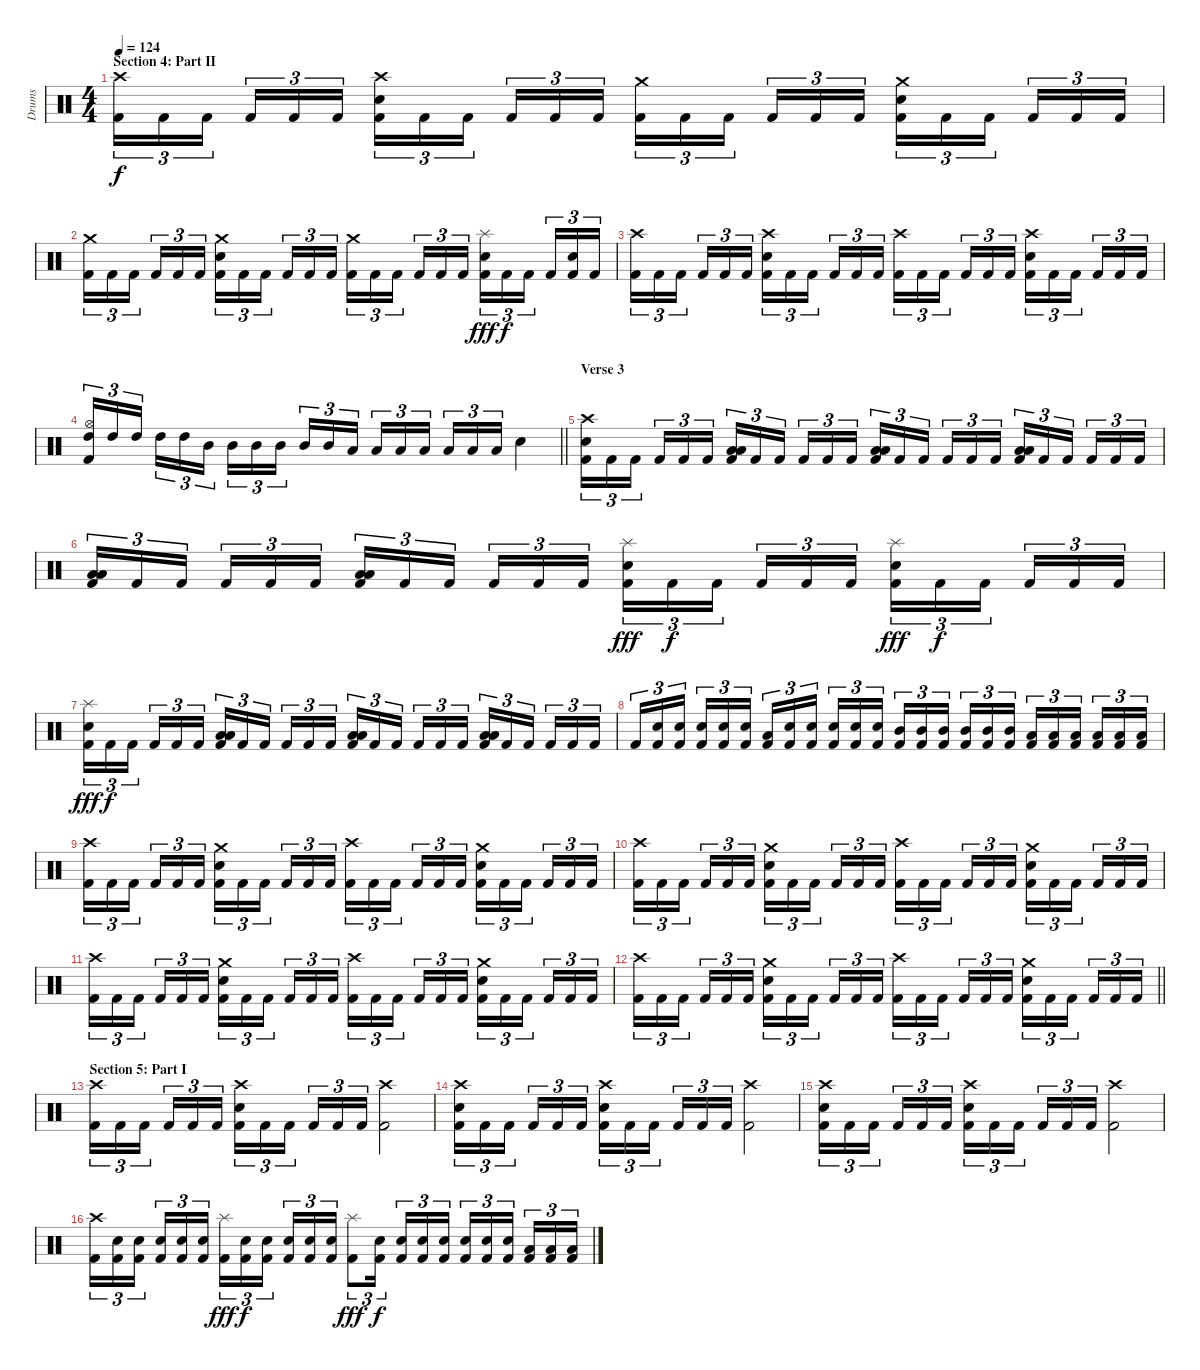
\track ("Drums" "Drums") {instrument percussion}
\staff {score}
\articulation defaults
\ts (4 4)
\section ("" "Section 4: Part II")
\tempo 124
\clef neutral
\ks c
("Crash high (hit)" "Kick (hit) 2").16{tu (3 2) dy f} "Kick (hit) 2".16{tu (3 2)} "Kick (hit) 2".16{tu (3 2) beam splitsecondary} "Kick (hit) 2".16{tu (3 2)} "Kick (hit) 2".16{tu (3 2)} "Kick (hit) 2".16{tu (3 2)} ("Crash high (hit)" "Electric Snare (hit)" "Kick (hit) 2").16{tu (3 2)} "Kick (hit) 2".16{tu (3 2)} "Kick (hit) 2".16{tu (3 2) beam splitsecondary} "Kick (hit) 2".16{tu (3 2)} "Kick (hit) 2".16{tu (3 2)} "Kick (hit) 2".16{tu (3 2)} ("Crash medium (hit)" "Kick (hit) 2").16{tu (3 2)} "Kick (hit) 2".16{tu (3 2)} "Kick (hit) 2".16{tu (3 2) beam splitsecondary} "Kick (hit) 2".16{tu (3 2)} "Kick (hit) 2".16{tu (3 2)} "Kick (hit) 2".16{tu (3 2)} ("Crash medium (hit)" "Electric Snare (hit)" "Kick (hit) 2").16{tu (3 2)} "Kick (hit) 2".16{tu (3 2)} "Kick (hit) 2".16{tu (3 2) beam splitsecondary} "Kick (hit) 2".16{tu (3 2)} "Kick (hit) 2".16{tu (3 2)} "Kick (hit) 2".16{tu (3 2)} |
("Crash medium (hit)" "Kick (hit) 2").16{tu (3 2)} "Kick (hit) 2".16{tu (3 2)} "Kick (hit) 2".16{tu (3 2) beam splitsecondary} "Kick (hit) 2".16{tu (3 2)} "Kick (hit) 2".16{tu (3 2)} "Kick (hit) 2".16{tu (3 2)} ("Crash medium (hit)" "Electric Snare (hit)" "Kick (hit) 2").16{tu (3 2)} "Kick (hit) 2".16{tu (3 2)} "Kick (hit) 2".16{tu (3 2) beam splitsecondary} "Kick (hit) 2".16{tu (3 2)} "Kick (hit) 2".16{tu (3 2)} "Kick (hit) 2".16{tu (3 2)} ("Crash medium (hit)" "Kick (hit) 2").16{tu (3 2)} "Kick (hit) 2".16{tu (3 2)} "Kick (hit) 2".16{tu (3 2) beam splitsecondary} "Kick (hit) 2".16{tu (3 2)} "Kick (hit) 2".16{tu (3 2)} "Kick (hit) 2".16{tu (3 2)} ("Splash (hit)" "Electric Snare (hit)" "Kick (hit) 2").16{tu (3 2) dy fff} "Kick (hit) 2".16{tu (3 2) dy f} "Kick (hit) 2".16{tu (3 2) beam splitsecondary} "Kick (hit) 2".16{tu (3 2)} ("Electric Snare (hit)" "Kick (hit) 2").16{tu (3 2)} "Kick (hit) 2".16{tu (3 2)} |
("Crash high (hit)" "Kick (hit) 2").16{tu (3 2)} "Kick (hit) 2".16{tu (3 2)} "Kick (hit) 2".16{tu (3 2) beam splitsecondary} "Kick (hit) 2".16{tu (3 2)} "Kick (hit) 2".16{tu (3 2)} "Kick (hit) 2".16{tu (3 2)} ("Crash high (hit)" "Electric Snare (hit)" "Kick (hit) 2").16{tu (3 2)} "Kick (hit) 2".16{tu (3 2)} "Kick (hit) 2".16{tu (3 2) beam splitsecondary} "Kick (hit) 2".16{tu (3 2)} "Kick (hit) 2".16{tu (3 2)} "Kick (hit) 2".16{tu (3 2)} ("Crash high (hit)" "Kick (hit) 2").16{tu (3 2)} "Kick (hit) 2".16{tu (3 2)} "Kick (hit) 2".16{tu (3 2) beam splitsecondary} "Kick (hit) 2".16{tu (3 2)} "Kick (hit) 2".16{tu (3 2)} "Kick (hit) 2".16{tu (3 2)} ("Crash high (hit)" "Electric Snare (hit)" "Kick (hit) 2").16{tu (3 2)} "Kick (hit) 2".16{tu (3 2)} "Kick (hit) 2".16{tu (3 2) beam splitsecondary} "Kick (hit) 2".16{tu (3 2)} "Kick (hit) 2".16{tu (3 2)} "Kick (hit) 2".16{tu (3 2)} |
\barLineRight lightlight
("Hi-Hat (open)" "High Tom (hit)" "Kick (hit) 2").16{tu (3 2)} "High Tom (hit)".16{tu (3 2)} "High Tom (hit)".16{tu (3 2) beam splitsecondary} "High Tom (hit)".16{tu (3 2)} "High Tom (hit)".16{tu (3 2)} "Mid Tom (hit)".16{tu (3 2)} "Mid Tom (hit)".16{tu (3 2)} "Mid Tom (hit)".16{tu (3 2)} "Mid Tom (hit)".16{tu (3 2) beam splitsecondary} "Mid Tom (hit)".16{tu (3 2)} "Mid Tom (hit)".16{tu (3 2)} "Low Tom (hit)".16{tu (3 2)} "Low Tom (hit)".16{tu (3 2)} "Low Tom (hit)".16{tu (3 2)} "Low Tom (hit)".16{tu (3 2) beam splitsecondary} "Low Tom (hit)".16{tu (3 2)} "Low Tom (hit)".16{tu (3 2)} "Low Tom (hit)".16{tu (3 2)} "Electric Snare (hit)".4 |
\section ("" "Verse 3")
("Crash high (hit)" "Electric Snare (hit)" "Kick (hit) 2").16{tu (3 2)} "Kick (hit) 2".16{tu (3 2)} "Kick (hit) 2".16{tu (3 2) beam splitsecondary} "Kick (hit) 2".16{tu (3 2)} "Kick (hit) 2".16{tu (3 2)} "Kick (hit) 2".16{tu (3 2)} ("Low Tom (hit)" "Low Tom (hit)" "Kick (hit) 2").16{tu (3 2) bd 30} "Kick (hit) 2".16{tu (3 2)} "Kick (hit) 2".16{tu (3 2) beam splitsecondary} "Kick (hit) 2".16{tu (3 2)} "Kick (hit) 2".16{tu (3 2)} "Kick (hit) 2".16{tu (3 2)} ("Low Tom (hit)" "Low Tom (hit)" "Kick (hit) 2").16{tu (3 2) bd 30} "Kick (hit) 2".16{tu (3 2)} "Kick (hit) 2".16{tu (3 2) beam splitsecondary} "Kick (hit) 2".16{tu (3 2)} "Kick (hit) 2".16{tu (3 2)} "Kick (hit) 2".16{tu (3 2)} ("Low Tom (hit)" "Low Tom (hit)" "Kick (hit) 2").16{tu (3 2) bd 30} "Kick (hit) 2".16{tu (3 2)} "Kick (hit) 2".16{tu (3 2) beam splitsecondary} "Kick (hit) 2".16{tu (3 2)} "Kick (hit) 2".16{tu (3 2)} "Kick (hit) 2".16{tu (3 2)} |
("Low Tom (hit)" "Low Tom (hit)" "Kick (hit) 2").16{tu (3 2) bd 30} "Kick (hit) 2".16{tu (3 2)} "Kick (hit) 2".16{tu (3 2) beam splitsecondary} "Kick (hit) 2".16{tu (3 2)} "Kick (hit) 2".16{tu (3 2)} "Kick (hit) 2".16{tu (3 2)} ("Low Tom (hit)" "Low Tom (hit)" "Kick (hit) 2").16{tu (3 2) bd 30} "Kick (hit) 2".16{tu (3 2)} "Kick (hit) 2".16{tu (3 2) beam splitsecondary} "Kick (hit) 2".16{tu (3 2)} "Kick (hit) 2".16{tu (3 2)} "Kick (hit) 2".16{tu (3 2)} ("Splash (hit)" "Electric Snare (hit)" "Kick (hit) 2").16{tu (3 2) dy fff} "Kick (hit) 2".16{tu (3 2) dy f} "Kick (hit) 2".16{tu (3 2) beam splitsecondary} "Kick (hit) 2".16{tu (3 2)} "Kick (hit) 2".16{tu (3 2)} "Kick (hit) 2".16{tu (3 2)} ("Splash (hit)" "Electric Snare (hit)" "Kick (hit) 2").16{tu (3 2) dy fff} "Kick (hit) 2".16{tu (3 2) dy f} "Kick (hit) 2".16{tu (3 2) beam splitsecondary} "Kick (hit) 2".16{tu (3 2)} "Kick (hit) 2".16{tu (3 2)} "Kick (hit) 2".16{tu (3 2)} |
("Splash (hit)" "Electric Snare (hit)" "Kick (hit) 2").16{tu (3 2) dy fff} "Kick (hit) 2".16{tu (3 2) dy f} "Kick (hit) 2".16{tu (3 2) beam splitsecondary} "Kick (hit) 2".16{tu (3 2)} "Kick (hit) 2".16{tu (3 2)} "Kick (hit) 2".16{tu (3 2)} ("Low Tom (hit)" "Low Tom (hit)" "Kick (hit) 2").16{tu (3 2) bd 30} "Kick (hit) 2".16{tu (3 2)} "Kick (hit) 2".16{tu (3 2) beam splitsecondary} "Kick (hit) 2".16{tu (3 2)} "Kick (hit) 2".16{tu (3 2)} "Kick (hit) 2".16{tu (3 2)} ("Low Tom (hit)" "Low Tom (hit)" "Kick (hit) 2").16{tu (3 2) bd 30} "Kick (hit) 2".16{tu (3 2)} "Kick (hit) 2".16{tu (3 2) beam splitsecondary} "Kick (hit) 2".16{tu (3 2)} "Kick (hit) 2".16{tu (3 2)} "Kick (hit) 2".16{tu (3 2)} ("Low Tom (hit)" "Low Tom (hit)" "Kick (hit) 2").16{tu (3 2) bd 30} "Kick (hit) 2".16{tu (3 2)} "Kick (hit) 2".16{tu (3 2) beam splitsecondary} "Kick (hit) 2".16{tu (3 2)} "Kick (hit) 2".16{tu (3 2)} "Kick (hit) 2".16{tu (3 2)} |
"Kick (hit) 2".16{tu (3 2)} ("Electric Snare (hit)" "Kick (hit) 2").16{tu (3 2)} ("Electric Snare (hit)" "Kick (hit) 2").16{tu (3 2) beam splitsecondary} ("Electric Snare (hit)" "Kick (hit) 2").16{tu (3 2)} ("Electric Snare (hit)" "Kick (hit) 2").16{tu (3 2)} ("Electric Snare (hit)" "Kick (hit) 2").16{tu (3 2)} ("Low Tom (hit)" "Kick (hit) 2").16{tu (3 2)} ("Electric Snare (hit)" "Kick (hit) 2").16{tu (3 2)} ("Electric Snare (hit)" "Kick (hit) 2").16{tu (3 2) beam splitsecondary} ("Electric Snare (hit)" "Kick (hit) 2").16{tu (3 2)} ("Electric Snare (hit)" "Kick (hit) 2").16{tu (3 2)} ("Electric Snare (hit)" "Kick (hit) 2").16{tu (3 2)} ("Mid Tom (hit)" "Kick (hit) 2").16{tu (3 2)} ("Mid Tom (hit)" "Kick (hit) 2").16{tu (3 2)} ("Mid Tom (hit)" "Kick (hit) 2").16{tu (3 2) beam splitsecondary} ("Mid Tom (hit)" "Kick (hit) 2").16{tu (3 2)} ("Mid Tom (hit)" "Kick (hit) 2").16{tu (3 2)} ("Mid Tom (hit)" "Kick (hit) 2").16{tu (3 2)} ("Low Tom (hit)" "Kick (hit) 2").16{tu (3 2)} ("Low Tom (hit)" "Kick (hit) 2").16{tu (3 2)} ("Low Tom (hit)" "Kick (hit) 2").16{tu (3 2) beam splitsecondary} ("Low Tom (hit)" "Kick (hit) 2").16{tu (3 2)} ("Low Tom (hit)" "Kick (hit) 2").16{tu (3 2)} ("Low Tom (hit)" "Kick (hit) 2").16{tu (3 2)} |
("Crash high (hit)" "Kick (hit) 2").16{tu (3 2)} "Kick (hit) 2".16{tu (3 2)} "Kick (hit) 2".16{tu (3 2) beam splitsecondary} "Kick (hit) 2".16{tu (3 2)} "Kick (hit) 2".16{tu (3 2)} "Kick (hit) 2".16{tu (3 2)} ("Crash medium (hit)" "Electric Snare (hit)" "Kick (hit) 2").16{tu (3 2)} "Kick (hit) 2".16{tu (3 2)} "Kick (hit) 2".16{tu (3 2) beam splitsecondary} "Kick (hit) 2".16{tu (3 2)} "Kick (hit) 2".16{tu (3 2)} "Kick (hit) 2".16{tu (3 2)} ("Crash high (hit)" "Kick (hit) 2").16{tu (3 2)} "Kick (hit) 2".16{tu (3 2)} "Kick (hit) 2".16{tu (3 2) beam splitsecondary} "Kick (hit) 2".16{tu (3 2)} "Kick (hit) 2".16{tu (3 2)} "Kick (hit) 2".16{tu (3 2)} ("Crash medium (hit)" "Electric Snare (hit)" "Kick (hit) 2").16{tu (3 2)} "Kick (hit) 2".16{tu (3 2)} "Kick (hit) 2".16{tu (3 2) beam splitsecondary} "Kick (hit) 2".16{tu (3 2)} "Kick (hit) 2".16{tu (3 2)} "Kick (hit) 2".16{tu (3 2)} |
("Crash high (hit)" "Kick (hit) 2").16{tu (3 2)} "Kick (hit) 2".16{tu (3 2)} "Kick (hit) 2".16{tu (3 2) beam splitsecondary} "Kick (hit) 2".16{tu (3 2)} "Kick (hit) 2".16{tu (3 2)} "Kick (hit) 2".16{tu (3 2)} ("Crash medium (hit)" "Electric Snare (hit)" "Kick (hit) 2").16{tu (3 2)} "Kick (hit) 2".16{tu (3 2)} "Kick (hit) 2".16{tu (3 2) beam splitsecondary} "Kick (hit) 2".16{tu (3 2)} "Kick (hit) 2".16{tu (3 2)} "Kick (hit) 2".16{tu (3 2)} ("Crash high (hit)" "Kick (hit) 2").16{tu (3 2)} "Kick (hit) 2".16{tu (3 2)} "Kick (hit) 2".16{tu (3 2) beam splitsecondary} "Kick (hit) 2".16{tu (3 2)} "Kick (hit) 2".16{tu (3 2)} "Kick (hit) 2".16{tu (3 2)} ("Crash medium (hit)" "Electric Snare (hit)" "Kick (hit) 2").16{tu (3 2)} "Kick (hit) 2".16{tu (3 2)} "Kick (hit) 2".16{tu (3 2) beam splitsecondary} "Kick (hit) 2".16{tu (3 2)} "Kick (hit) 2".16{tu (3 2)} "Kick (hit) 2".16{tu (3 2)} |
("Crash high (hit)" "Kick (hit) 2").16{tu (3 2)} "Kick (hit) 2".16{tu (3 2)} "Kick (hit) 2".16{tu (3 2) beam splitsecondary} "Kick (hit) 2".16{tu (3 2)} "Kick (hit) 2".16{tu (3 2)} "Kick (hit) 2".16{tu (3 2)} ("Crash medium (hit)" "Electric Snare (hit)" "Kick (hit) 2").16{tu (3 2)} "Kick (hit) 2".16{tu (3 2)} "Kick (hit) 2".16{tu (3 2) beam splitsecondary} "Kick (hit) 2".16{tu (3 2)} "Kick (hit) 2".16{tu (3 2)} "Kick (hit) 2".16{tu (3 2)} ("Crash high (hit)" "Kick (hit) 2").16{tu (3 2)} "Kick (hit) 2".16{tu (3 2)} "Kick (hit) 2".16{tu (3 2) beam splitsecondary} "Kick (hit) 2".16{tu (3 2)} "Kick (hit) 2".16{tu (3 2)} "Kick (hit) 2".16{tu (3 2)} ("Crash medium (hit)" "Electric Snare (hit)" "Kick (hit) 2").16{tu (3 2)} "Kick (hit) 2".16{tu (3 2)} "Kick (hit) 2".16{tu (3 2) beam splitsecondary} "Kick (hit) 2".16{tu (3 2)} "Kick (hit) 2".16{tu (3 2)} "Kick (hit) 2".16{tu (3 2)} |
\barLineRight lightlight
("Crash high (hit)" "Kick (hit) 2").16{tu (3 2)} "Kick (hit) 2".16{tu (3 2)} "Kick (hit) 2".16{tu (3 2) beam splitsecondary} "Kick (hit) 2".16{tu (3 2)} "Kick (hit) 2".16{tu (3 2)} "Kick (hit) 2".16{tu (3 2)} ("Crash medium (hit)" "Electric Snare (hit)" "Kick (hit) 2").16{tu (3 2)} "Kick (hit) 2".16{tu (3 2)} "Kick (hit) 2".16{tu (3 2) beam splitsecondary} "Kick (hit) 2".16{tu (3 2)} "Kick (hit) 2".16{tu (3 2)} "Kick (hit) 2".16{tu (3 2)} ("Crash high (hit)" "Kick (hit) 2").16{tu (3 2)} "Kick (hit) 2".16{tu (3 2)} "Kick (hit) 2".16{tu (3 2) beam splitsecondary} "Kick (hit) 2".16{tu (3 2)} "Kick (hit) 2".16{tu (3 2)} "Kick (hit) 2".16{tu (3 2)} ("Crash medium (hit)" "Electric Snare (hit)" "Kick (hit) 2").16{tu (3 2)} "Kick (hit) 2".16{tu (3 2)} "Kick (hit) 2".16{tu (3 2) beam splitsecondary} "Kick (hit) 2".16{tu (3 2)} "Kick (hit) 2".16{tu (3 2)} "Kick (hit) 2".16{tu (3 2)} |
\section ("" "Section 5: Part I")
("Crash high (hit)" "Kick (hit) 2").16{tu (3 2)} "Kick (hit) 2".16{tu (3 2)} "Kick (hit) 2".16{tu (3 2) beam splitsecondary} "Kick (hit) 2".16{tu (3 2)} "Kick (hit) 2".16{tu (3 2)} "Kick (hit) 2".16{tu (3 2)} ("Crash high (hit)" "Electric Snare (hit)" "Kick (hit) 2").16{tu (3 2)} "Kick (hit) 2".16{tu (3 2)} "Kick (hit) 2".16{tu (3 2) beam splitsecondary} "Kick (hit) 2".16{tu (3 2)} "Kick (hit) 2".16{tu (3 2)} "Kick (hit) 2".16{tu (3 2)} ("Crash high (hit)" "Kick (hit) 2").2 |
("Crash high (hit)" "Electric Snare (hit)" "Kick (hit) 2").16{tu (3 2)} "Kick (hit) 2".16{tu (3 2)} "Kick (hit) 2".16{tu (3 2) beam splitsecondary} "Kick (hit) 2".16{tu (3 2)} "Kick (hit) 2".16{tu (3 2)} "Kick (hit) 2".16{tu (3 2)} ("Crash high (hit)" "Electric Snare (hit)" "Kick (hit) 2").16{tu (3 2)} "Kick (hit) 2".16{tu (3 2)} "Kick (hit) 2".16{tu (3 2) beam splitsecondary} "Kick (hit) 2".16{tu (3 2)} "Kick (hit) 2".16{tu (3 2)} "Kick (hit) 2".16{tu (3 2)} ("Crash high (hit)" "Kick (hit) 2").2 |
("Crash high (hit)" "Electric Snare (hit)" "Kick (hit) 2").16{tu (3 2)} "Kick (hit) 2".16{tu (3 2)} "Kick (hit) 2".16{tu (3 2) beam splitsecondary} "Kick (hit) 2".16{tu (3 2)} "Kick (hit) 2".16{tu (3 2)} "Kick (hit) 2".16{tu (3 2)} ("Crash high (hit)" "Electric Snare (hit)" "Kick (hit) 2").16{tu (3 2)} "Kick (hit) 2".16{tu (3 2)} "Kick (hit) 2".16{tu (3 2) beam splitsecondary} "Kick (hit) 2".16{tu (3 2)} "Kick (hit) 2".16{tu (3 2)} "Kick (hit) 2".16{tu (3 2)} ("Crash high (hit)" "Kick (hit) 2").2 |
("Crash high (hit)" "Kick (hit) 2").16{tu (3 2)} ("Electric Snare (hit)" "Kick (hit) 2").16{tu (3 2)} ("Electric Snare (hit)" "Kick (hit) 2").16{tu (3 2) beam splitsecondary} ("Electric Snare (hit)" "Kick (hit) 2").16{tu (3 2)} ("Electric Snare (hit)" "Kick (hit) 2").16{tu (3 2)} ("Electric Snare (hit)" "Kick (hit) 2").16{tu (3 2)} ("Splash (hit)" "Kick (hit) 2").16{tu (3 2) dy fff} ("Electric Snare (hit)" "Kick (hit) 2").16{tu (3 2) dy f} ("Electric Snare (hit)" "Kick (hit) 2").16{tu (3 2) beam splitsecondary} ("Electric Snare (hit)" "Kick (hit) 2").16{tu (3 2)} ("Electric Snare (hit)" "Kick (hit) 2").16{tu (3 2)} ("Electric Snare (hit)" "Kick (hit) 2").16{tu (3 2)} ("Splash (hit)" "Kick (hit) 2").8{tu (3 2) dy fff} ("Electric Snare (hit)" "Kick (hit) 2").16{tu (3 2) dy f beam splitsecondary} ("Electric Snare (hit)" "Kick (hit) 2").16{tu (3 2)} ("Electric Snare (hit)" "Kick (hit) 2").16{tu (3 2)} ("Electric Snare (hit)" "Kick (hit) 2").16{tu (3 2)} ("Electric Snare (hit)" "Kick (hit) 2").16{tu (3 2)} ("Electric Snare (hit)" "Kick (hit) 2").16{tu (3 2)} ("Electric Snare (hit)" "Kick (hit) 2").16{tu (3 2) beam splitsecondary} ("Low Tom (hit)" "Kick (hit) 2").16{tu (3 2)} ("Low Tom (hit)" "Kick (hit) 2").16{tu (3 2)} ("Low Tom (hit)" "Kick (hit) 2").16{tu (3 2)}
